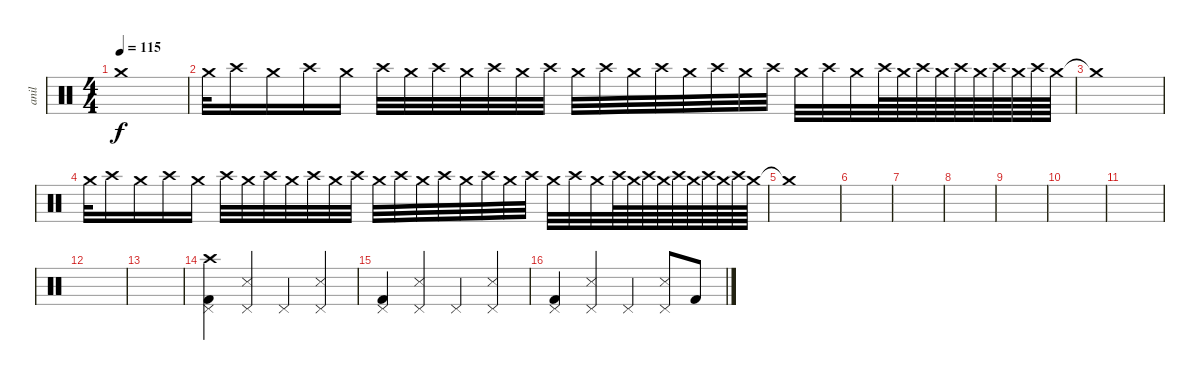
\track ("anil " "anil ") {instrument percussion}
\staff {score}
\articulation defaults
\ts (4 4)
\tempo 115
\clef neutral
\ks c "Crash medium (hit)"{t}.1{dy f}
|
"Crash medium (hit)".32{volume 2} "Crash high (hit)".16{volume 15} "Crash medium (hit)".16 "Crash high (hit)".16 "Crash medium (hit)".16 "Crash high (hit)".32 "Crash medium (hit)".32 "Crash high (hit)".32 "Crash medium (hit)".32 "Crash high (hit)".32 "Crash medium (hit)".32 "Crash high (hit)".32 "Crash medium (hit)".32 "Crash high (hit)".32 "Crash medium (hit)".32 "Crash high (hit)".32 "Crash medium (hit)".32 "Crash high (hit)".32 "Crash medium (hit)".32 "Crash high (hit)".32 "Crash medium (hit)".32 "Crash high (hit)".32 "Crash medium (hit)".32 "Crash high (hit)".64 "Crash medium (hit)".64 "Crash high (hit)".64 "Crash medium (hit)".64 "Crash high (hit)".64 "Crash medium (hit)".64 "Crash high (hit)".64 "Crash medium (hit)".64 "Crash high (hit)".64 "Crash medium (hit)".64 |
"Crash medium (hit)"{t}.1 |
"Crash medium (hit)".32{volume 2} "Crash high (hit)".16{volume 15} "Crash medium (hit)".16 "Crash high (hit)".16 "Crash medium (hit)".16 "Crash high (hit)".32 "Crash medium (hit)".32 "Crash high (hit)".32 "Crash medium (hit)".32 "Crash high (hit)".32 "Crash medium (hit)".32 "Crash high (hit)".32 "Crash medium (hit)".32 "Crash high (hit)".32 "Crash medium (hit)".32 "Crash high (hit)".32 "Crash medium (hit)".32 "Crash high (hit)".32 "Crash medium (hit)".32 "Crash high (hit)".32 "Crash medium (hit)".32 "Crash high (hit)".32 "Crash medium (hit)".32 "Crash high (hit)".64 "Crash medium (hit)".64 "Crash high (hit)".64 "Crash medium (hit)".64 "Crash high (hit)".64 "Crash medium (hit)".64 "Crash high (hit)".64 "Crash medium (hit)".64 "Crash high (hit)".64 "Crash medium (hit)".64 |
"Crash medium (hit)"{t}.1 |
|
|
|
|
|
|
|
|
("Crash high (hit)" "Pedal Hi-Hat (hit)" "Kick (hit) 2").4 ("Pedal Hi-Hat (hit)" "Snare (side stick) 3").4 "Pedal Hi-Hat (hit)".4 ("Pedal Hi-Hat (hit)" "Snare (side stick) 3").4 |
("Pedal Hi-Hat (hit)" "Kick (hit) 2").4 ("Pedal Hi-Hat (hit)" "Snare (side stick) 3").4 "Pedal Hi-Hat (hit)".4 ("Pedal Hi-Hat (hit)" "Snare (side stick) 3").4 |
("Pedal Hi-Hat (hit)" "Kick (hit) 2").4 ("Pedal Hi-Hat (hit)" "Snare (side stick) 3").4 "Pedal Hi-Hat (hit)".4 ("Pedal Hi-Hat (hit)" "Snare (side stick) 3").8 "Kick (hit) 2".8
